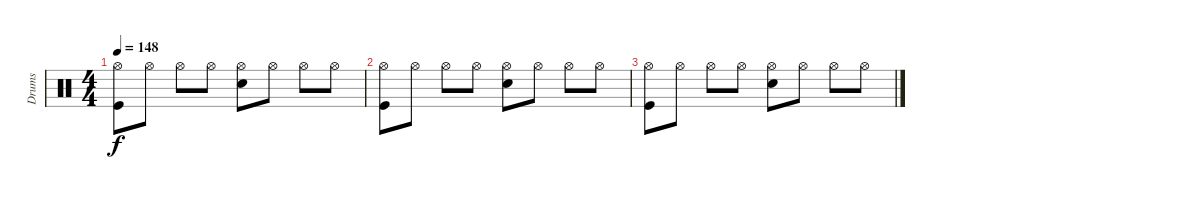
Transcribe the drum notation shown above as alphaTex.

\track ("Drums" "Drums") {instrument percussion}
\staff {score}
\articulation defaults
\ts (4 4)
\tempo 148
\clef neutral
\ks c
("Kick (hit)" "Hi-Hat (open)").8{dy f} "Hi-Hat (open)".8 "Hi-Hat (open)".8 "Hi-Hat (open)".8 ("Snare (hit) 2" "Hi-Hat (open)").8 "Hi-Hat (open)".8 "Hi-Hat (open)".8 "Hi-Hat (open)".8 |
("Kick (hit)" "Hi-Hat (open)").8 "Hi-Hat (open)".8 "Hi-Hat (open)".8 "Hi-Hat (open)".8 ("Snare (hit) 2" "Hi-Hat (open)").8 "Hi-Hat (open)".8 "Hi-Hat (open)".8 "Hi-Hat (open)".8 |
("Kick (hit)" "Hi-Hat (open)").8 "Hi-Hat (open)".8 "Hi-Hat (open)".8 "Hi-Hat (open)".8 ("Snare (hit) 2" "Hi-Hat (open)").8 "Hi-Hat (open)".8 "Hi-Hat (open)".8 "Hi-Hat (open)".8
